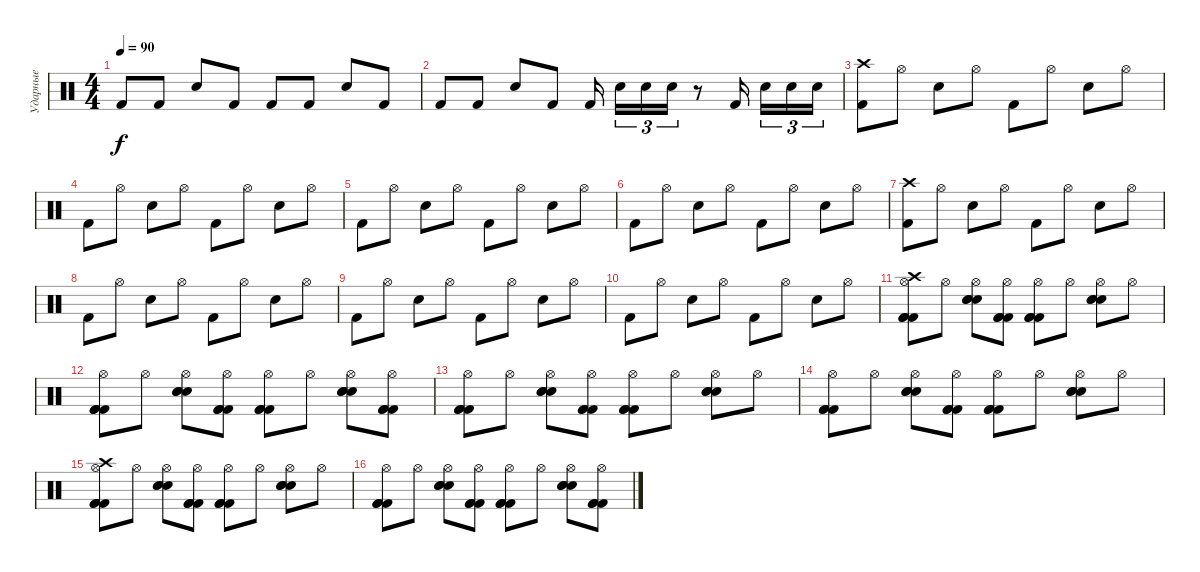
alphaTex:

\track ("Ударные" "Ударные") {instrument percussion}
\staff {score}
\articulation defaults
\ts (4 4)
\tempo 90
\clef neutral
\ks c "Kick (hit) 2".8{dy f} "Kick (hit) 2".8 "Electric Snare (hit)".8 "Kick (hit) 2".8 "Kick (hit) 2".8 "Kick (hit) 2".8 "Electric Snare (hit)".8 "Kick (hit) 2".8
|
"Kick (hit) 2".8 "Kick (hit) 2".8 "Electric Snare (hit)".8 "Kick (hit) 2".8 "Kick (hit) 2".16{beam splitsecondary} "Electric Snare (hit)".16{tu (3 2)} "Electric Snare (hit)".16{tu (3 2)} "Electric Snare (hit)".16{tu (3 2)} r.8 "Kick (hit) 2".16{beam splitsecondary} "Electric Snare (hit)".16{tu (3 2)} "Electric Snare (hit)".16{tu (3 2)} "Electric Snare (hit)".16{tu (3 2)} |
("Crash high (hit)" "Kick (hit) 2").8 "Hi-Hat (open)".8 "Electric Snare (hit)".8 "Hi-Hat (open)".8 "Kick (hit) 2".8 "Hi-Hat (open)".8 "Electric Snare (hit)".8 "Hi-Hat (open)".8 |
"Kick (hit) 2".8 "Hi-Hat (open)".8 "Electric Snare (hit)".8 "Hi-Hat (open)".8 "Kick (hit) 2".8 "Hi-Hat (open)".8 "Electric Snare (hit)".8 "Hi-Hat (open)".8 |
"Kick (hit) 2".8 "Hi-Hat (open)".8 "Electric Snare (hit)".8 "Hi-Hat (open)".8 "Kick (hit) 2".8 "Hi-Hat (open)".8 "Electric Snare (hit)".8 "Hi-Hat (open)".8 |
"Kick (hit) 2".8 "Hi-Hat (open)".8 "Electric Snare (hit)".8 "Hi-Hat (open)".8 "Kick (hit) 2".8 "Hi-Hat (open)".8 "Electric Snare (hit)".8 "Hi-Hat (open)".8 |
("Crash high (hit)" "Kick (hit) 2").8 "Hi-Hat (open)".8 "Electric Snare (hit)".8 "Hi-Hat (open)".8 "Kick (hit) 2".8 "Hi-Hat (open)".8 "Electric Snare (hit)".8 "Hi-Hat (open)".8 |
"Kick (hit) 2".8 "Hi-Hat (open)".8 "Electric Snare (hit)".8 "Hi-Hat (open)".8 "Kick (hit) 2".8 "Hi-Hat (open)".8 "Electric Snare (hit)".8 "Hi-Hat (open)".8 |
"Kick (hit) 2".8 "Hi-Hat (open)".8 "Electric Snare (hit)".8 "Hi-Hat (open)".8 "Kick (hit) 2".8 "Hi-Hat (open)".8 "Electric Snare (hit)".8 "Hi-Hat (open)".8 |
"Kick (hit) 2".8 "Hi-Hat (open)".8 "Electric Snare (hit)".8 "Hi-Hat (open)".8 "Kick (hit) 2".8 "Hi-Hat (open)".8 "Electric Snare (hit)".8 "Hi-Hat (open)".8 |
("Hi-Hat (open)" "Crash high (hit)" "Kick (hit) 2" "Kick (hit) 2" "Kick (hit) 2").8 "Hi-Hat (open)".8 ("Hi-Hat (open)" "Electric Snare (hit)" "Electric Snare (hit)" "Electric Snare (hit)").8 ("Hi-Hat (open)" "Kick (hit) 2" "Kick (hit) 2" "Kick (hit) 2").8 ("Hi-Hat (open)" "Kick (hit) 2" "Kick (hit) 2" "Kick (hit) 2").8 "Hi-Hat (open)".8 ("Hi-Hat (open)" "Electric Snare (hit)" "Electric Snare (hit)" "Electric Snare (hit)").8 "Hi-Hat (open)".8 |
("Hi-Hat (open)" "Kick (hit) 2" "Kick (hit) 2" "Kick (hit) 2").8 "Hi-Hat (open)".8 ("Hi-Hat (open)" "Electric Snare (hit)" "Electric Snare (hit)" "Electric Snare (hit)").8 ("Hi-Hat (open)" "Kick (hit) 2" "Kick (hit) 2" "Kick (hit) 2").8 ("Hi-Hat (open)" "Kick (hit) 2" "Kick (hit) 2" "Kick (hit) 2").8 "Hi-Hat (open)".8 ("Hi-Hat (open)" "Electric Snare (hit)" "Electric Snare (hit)" "Electric Snare (hit)").8 ("Hi-Hat (open)" "Kick (hit) 2" "Kick (hit) 2" "Kick (hit) 2").8 |
("Hi-Hat (open)" "Kick (hit) 2" "Kick (hit) 2" "Kick (hit) 2").8 "Hi-Hat (open)".8 ("Hi-Hat (open)" "Electric Snare (hit)" "Electric Snare (hit)" "Electric Snare (hit)").8 ("Hi-Hat (open)" "Kick (hit) 2" "Kick (hit) 2" "Kick (hit) 2").8 ("Hi-Hat (open)" "Kick (hit) 2" "Kick (hit) 2" "Kick (hit) 2").8 "Hi-Hat (open)".8 ("Hi-Hat (open)" "Electric Snare (hit)" "Electric Snare (hit)" "Electric Snare (hit)").8 "Hi-Hat (open)".8 |
("Hi-Hat (open)" "Kick (hit) 2" "Kick (hit) 2" "Kick (hit) 2").8 "Hi-Hat (open)".8 ("Hi-Hat (open)" "Electric Snare (hit)" "Electric Snare (hit)" "Electric Snare (hit)").8 ("Hi-Hat (open)" "Kick (hit) 2" "Kick (hit) 2" "Kick (hit) 2").8 ("Hi-Hat (open)" "Kick (hit) 2" "Kick (hit) 2" "Kick (hit) 2").8 "Hi-Hat (open)".8 ("Hi-Hat (open)" "Electric Snare (hit)" "Electric Snare (hit)" "Electric Snare (hit)").8 "Hi-Hat (open)".8 |
("Hi-Hat (open)" "Crash high (hit)" "Kick (hit) 2" "Kick (hit) 2" "Kick (hit) 2").8 "Hi-Hat (open)".8 ("Hi-Hat (open)" "Electric Snare (hit)" "Electric Snare (hit)" "Electric Snare (hit)").8 ("Hi-Hat (open)" "Kick (hit) 2" "Kick (hit) 2" "Kick (hit) 2").8 ("Hi-Hat (open)" "Kick (hit) 2" "Kick (hit) 2" "Kick (hit) 2").8 "Hi-Hat (open)".8 ("Hi-Hat (open)" "Electric Snare (hit)" "Electric Snare (hit)" "Electric Snare (hit)").8 "Hi-Hat (open)".8 |
("Hi-Hat (open)" "Kick (hit) 2" "Kick (hit) 2" "Kick (hit) 2").8 "Hi-Hat (open)".8 ("Hi-Hat (open)" "Electric Snare (hit)" "Electric Snare (hit)" "Electric Snare (hit)").8 ("Hi-Hat (open)" "Kick (hit) 2" "Kick (hit) 2" "Kick (hit) 2").8 ("Hi-Hat (open)" "Kick (hit) 2" "Kick (hit) 2" "Kick (hit) 2").8 "Hi-Hat (open)".8 ("Hi-Hat (open)" "Electric Snare (hit)" "Electric Snare (hit)" "Electric Snare (hit)").8 ("Hi-Hat (open)" "Kick (hit) 2" "Kick (hit) 2" "Kick (hit) 2").8
